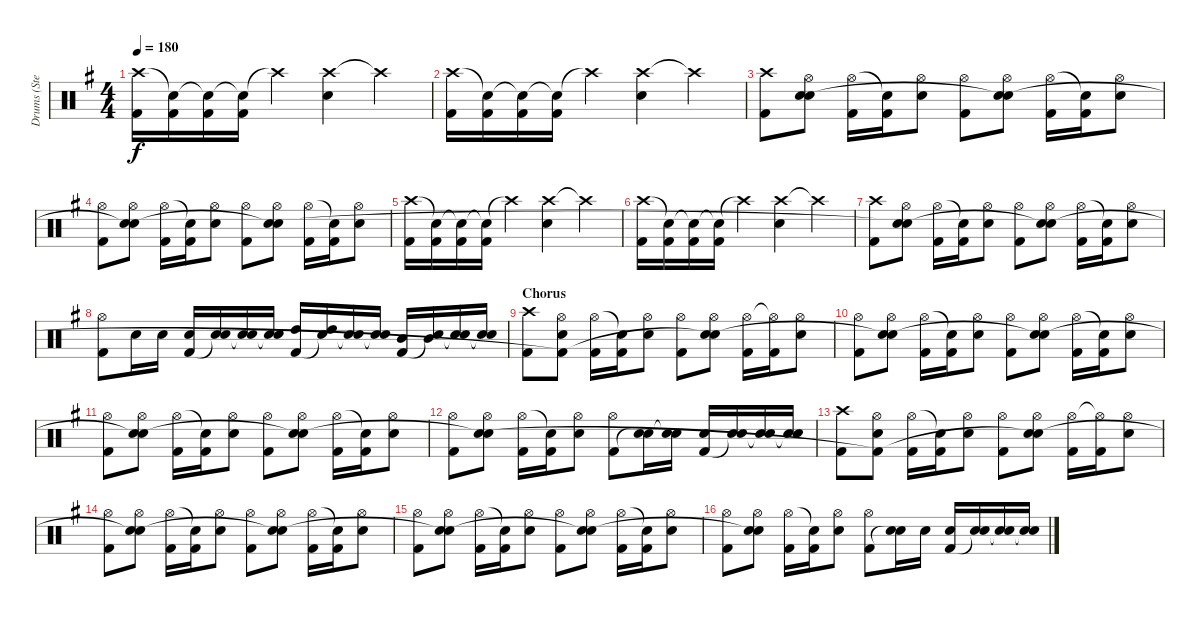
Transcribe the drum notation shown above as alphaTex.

\track ("Drums (Stevo)" "Drums (Ste") {instrument percussion}
\staff {score}
\articulation defaults
\ts (4 4)
\tempo 180
\clef neutral
\ks g
("Crash high (hit)" "Kick (hit) 2").16{dy f} ("Snare (hit)"{t} "Kick (hit) 2").16 ("Snare (hit)"{t} "Kick (hit) 2").16 ("Snare (hit)"{t} "Kick (hit) 2").16 "Crash high (hit)"{t}.4 ("Crash high (hit)" "Snare (hit) 2").4 "Crash high (hit)"{t}.4 |
("Crash high (hit)" "Kick (hit) 2").16 ("Snare (hit)"{t} "Kick (hit) 2").16 ("Snare (hit)"{t} "Kick (hit) 2").16 ("Snare (hit)"{t} "Kick (hit) 2").16 "Crash high (hit)"{t}.4 ("Crash high (hit)" "Snare (hit) 2").4 "Crash high (hit)"{t}.4 |
("Crash high (hit)" "Kick (hit) 2").8 ("Hi-Hat (open)" "Snare (hit) 2" "Snare (hit)"{t}).8 ("Hi-Hat (open)" "Kick (hit) 2").16 ("Snare (hit)"{t} "Kick (hit) 2").16 ("Hi-Hat (open)" "Snare (hit) 2").8 ("Hi-Hat (open)" "Kick (hit) 2").8 ("Hi-Hat (open)" "Snare (hit) 2" "Snare (hit)"{t}).8 ("Hi-Hat (open)" "Kick (hit) 2").16 ("Snare (hit)"{t} "Kick (hit) 2").16 ("Hi-Hat (open)" "Snare (hit) 2").8 |
("Hi-Hat (open)" "Kick (hit) 2").8 ("Hi-Hat (open)" "Snare (hit) 2" "Snare (hit)"{t}).8 ("Hi-Hat (open)" "Kick (hit) 2").16 ("Snare (hit)"{t} "Kick (hit) 2").16 ("Hi-Hat (open)" "Snare (hit) 2").8 ("Hi-Hat (open)" "Kick (hit) 2").8 ("Hi-Hat (open)" "Snare (hit) 2" "Snare (hit)"{t}).8 ("Hi-Hat (open)" "Kick (hit) 2").16 ("Snare (hit)"{t} "Kick (hit) 2").16 ("Hi-Hat (open)" "Snare (hit) 2").8 |
("Crash high (hit)" "Kick (hit) 2").16 ("Snare (hit)"{t} "Kick (hit) 2").16 ("Snare (hit)"{t} "Kick (hit) 2").16 ("Snare (hit)"{t} "Kick (hit) 2").16 "Crash high (hit)"{t}.4 ("Crash high (hit)" "Snare (hit) 2").4 "Crash high (hit)"{t}.4 |
("Crash high (hit)" "Kick (hit) 2").16 ("Snare (hit)"{t} "Kick (hit) 2").16 ("Snare (hit)"{t} "Kick (hit) 2").16 ("Snare (hit)"{t} "Kick (hit) 2").16 "Crash high (hit)"{t}.4 ("Crash high (hit)" "Snare (hit) 2").4 "Crash high (hit)"{t}.4 |
("Crash high (hit)" "Kick (hit) 2").8 ("Hi-Hat (open)" "Snare (hit) 2" "Snare (hit)"{t}).8 ("Hi-Hat (open)" "Kick (hit) 2").16 ("Snare (hit)"{t} "Kick (hit) 2").16 ("Hi-Hat (open)" "Snare (hit) 2").8 ("Hi-Hat (open)" "Kick (hit) 2").8 ("Hi-Hat (open)" "Snare (hit) 2" "Snare (hit)"{t}).8 ("Hi-Hat (open)" "Kick (hit) 2").16 ("Snare (hit)"{t} "Kick (hit) 2").16 ("Hi-Hat (open)" "Snare (hit) 2").8 |
("Hi-Hat (open)" "Kick (hit) 2").8 "Snare (hit) 2".16 "Snare (hit) 2".16 ("Snare (hit) 2" "Kick (hit) 2").16 ("Snare (hit) 2" "Snare (hit)"{t}).16 ("Snare (hit) 2" "Snare (hit)"{t}).16 ("Snare (hit) 2" "Snare (hit)"{t}).16 ("High Tom (hit)" "Kick (hit) 2").16 ("High Tom (hit)" "Snare (hit)"{t}).16 ("Snare (hit) 2" "Snare (hit)"{t}).16 ("Snare (hit) 2" "Snare (hit)"{t}).16 ("Mid Tom (hit)" "Kick (hit) 2").16 ("Mid Tom (hit)" "Snare (hit)"{t}).16 ("Snare (hit) 2" "Snare (hit)"{t}).16 ("Snare (hit) 2" "Snare (hit)"{t}).16 |
\section ("" "Chorus")
("Crash high (hit)" "Kick (hit) 2").8 ("Hi-Hat (open)" "Snare (hit) 2" "Kick (hit) 2"{t}).8 ("Hi-Hat (open)" "Kick (hit) 2").16 ("Snare (hit)"{t} "Kick (hit) 2").16 ("Hi-Hat (open)" "Snare (hit) 2").8 ("Hi-Hat (open)" "Kick (hit) 2").8 ("Hi-Hat (open)" "Snare (hit) 2" "Snare (hit)"{t}).8 ("Hi-Hat (open)" "Kick (hit) 2").16 ("Hi-Hat (open)"{t} "Kick (hit) 2").16 ("Hi-Hat (open)" "Snare (hit) 2").8 |
("Hi-Hat (open)" "Kick (hit) 2").8 ("Hi-Hat (open)" "Snare (hit) 2" "Snare (hit)"{t}).8 ("Hi-Hat (open)" "Kick (hit) 2").16 ("Snare (hit)"{t} "Kick (hit) 2").16 ("Hi-Hat (open)" "Snare (hit) 2").8 ("Hi-Hat (open)" "Kick (hit) 2").8 ("Hi-Hat (open)" "Snare (hit) 2" "Snare (hit)"{t}).8 ("Hi-Hat (open)" "Kick (hit) 2").16 ("Snare (hit)"{t} "Kick (hit) 2").16 ("Hi-Hat (open)" "Snare (hit) 2").8 |
("Hi-Hat (open)" "Kick (hit) 2").8 ("Hi-Hat (open)" "Snare (hit) 2" "Snare (hit)"{t}).8 ("Hi-Hat (open)" "Kick (hit) 2").16 ("Snare (hit)"{t} "Kick (hit) 2").16 ("Hi-Hat (open)" "Snare (hit) 2").8 ("Hi-Hat (open)" "Kick (hit) 2").8 ("Hi-Hat (open)" "Snare (hit) 2" "Snare (hit)"{t}).8 ("Hi-Hat (open)" "Kick (hit) 2").16 ("Snare (hit)"{t} "Kick (hit) 2").16 ("Hi-Hat (open)" "Snare (hit) 2").8 |
("Hi-Hat (open)" "Kick (hit) 2").8 ("Hi-Hat (open)" "Snare (hit) 2" "Snare (hit)"{t}).8 ("Hi-Hat (open)" "Kick (hit) 2").16 ("Snare (hit)"{t} "Kick (hit) 2").16 ("Hi-Hat (open)" "Snare (hit) 2").8 ("Hi-Hat (open)" "Kick (hit) 2").8 ("Snare (hit) 2" "Snare (hit)"{t}).16 ("Snare (hit) 2" "Snare (hit)"{t}).16 ("Snare (hit) 2" "Kick (hit) 2").16 ("Snare (hit) 2" "Snare (hit)"{t}).16 ("Snare (hit) 2" "Snare (hit)"{t}).16 ("Snare (hit) 2" "Snare (hit)"{t}).16 |
("Crash high (hit)" "Kick (hit) 2").8 ("Hi-Hat (open)" "Snare (hit) 2" "Kick (hit) 2"{t}).8 ("Hi-Hat (open)" "Kick (hit) 2").16 ("Snare (hit)"{t} "Kick (hit) 2").16 ("Hi-Hat (open)" "Snare (hit) 2").8 ("Hi-Hat (open)" "Kick (hit) 2").8 ("Hi-Hat (open)" "Snare (hit) 2" "Snare (hit)"{t}).8 ("Hi-Hat (open)" "Kick (hit) 2").16 ("Hi-Hat (open)"{t} "Kick (hit) 2").16 ("Hi-Hat (open)" "Snare (hit) 2").8 |
("Hi-Hat (open)" "Kick (hit) 2").8 ("Hi-Hat (open)" "Snare (hit) 2" "Snare (hit)"{t}).8 ("Hi-Hat (open)" "Kick (hit) 2").16 ("Snare (hit)"{t} "Kick (hit) 2").16 ("Hi-Hat (open)" "Snare (hit) 2").8 ("Hi-Hat (open)" "Kick (hit) 2").8 ("Hi-Hat (open)" "Snare (hit) 2" "Snare (hit)"{t}).8 ("Hi-Hat (open)" "Kick (hit) 2").16 ("Snare (hit)"{t} "Kick (hit) 2").16 ("Hi-Hat (open)" "Snare (hit) 2").8 |
("Hi-Hat (open)" "Kick (hit) 2").8 ("Hi-Hat (open)" "Snare (hit) 2" "Snare (hit)"{t}).8 ("Hi-Hat (open)" "Kick (hit) 2").16 ("Snare (hit)"{t} "Kick (hit) 2").16 ("Hi-Hat (open)" "Snare (hit) 2").8 ("Hi-Hat (open)" "Kick (hit) 2").8 ("Hi-Hat (open)" "Snare (hit) 2" "Snare (hit)"{t}).8 ("Hi-Hat (open)" "Kick (hit) 2").16 ("Snare (hit)"{t} "Kick (hit) 2").16 ("Hi-Hat (open)" "Snare (hit) 2").8 |
("Hi-Hat (open)" "Kick (hit) 2").8 ("Hi-Hat (open)" "Snare (hit) 2" "Snare (hit)"{t}).8 ("Hi-Hat (open)" "Kick (hit) 2").16 ("Snare (hit)"{t} "Kick (hit) 2").16 ("Hi-Hat (open)" "Snare (hit) 2").8 ("Hi-Hat (open)" "Kick (hit) 2").8 ("Snare (hit) 2" "Snare (hit)"{t}).16 "Snare (hit) 2".16 ("Snare (hit) 2" "Kick (hit) 2").16 ("Snare (hit) 2" "Snare (hit)"{t}).16 ("Snare (hit) 2" "Snare (hit)"{t}).16 ("Snare (hit) 2" "Snare (hit)"{t}).16
